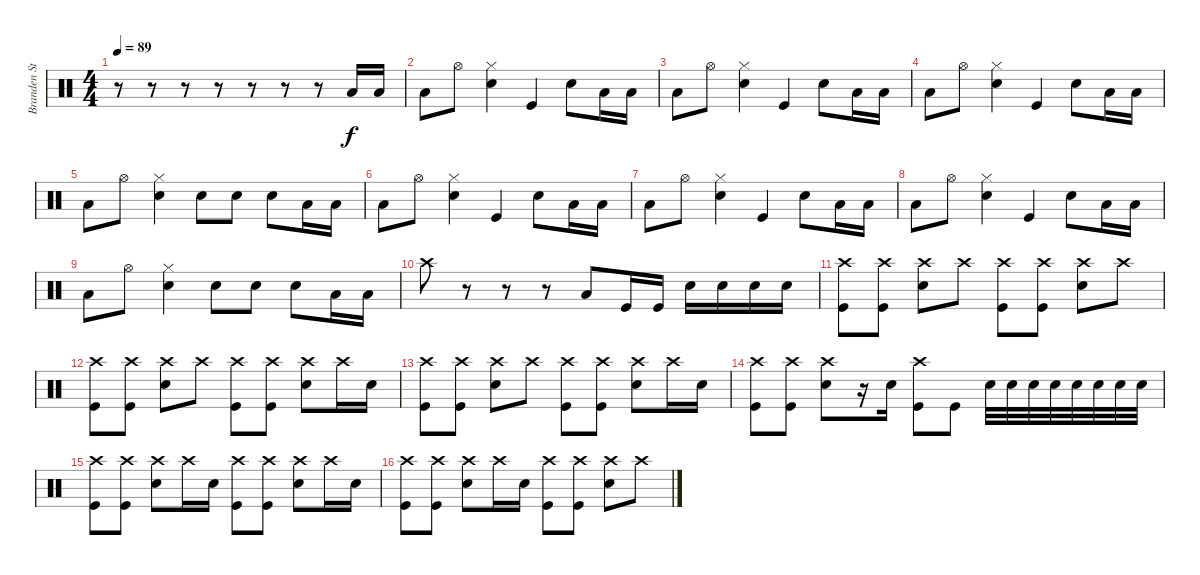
\track ("Branden Steineckert - Drums" "Branden St") {instrument percussion}
\staff {score}
\articulation defaults
\ts (4 4)
\tempo 89
\clef neutral
\ks c
r.8{dy mp} r.8 r.8 r.8 r.8 r.8 r.8 "Low Floor Tom (hit)".16{dy f} "Low Floor Tom (hit)".16 |
"Low Floor Tom (hit)".8 "Hi-Hat (open)".8 ("Hi-Hat (closed)" "Electric Snare (hit)").4 "Kick (hit)".4 "Electric Snare (hit)".8 "Low Floor Tom (hit)".16 "Low Floor Tom (hit)".16 |
"Low Floor Tom (hit)".8 "Hi-Hat (open)".8 ("Hi-Hat (closed)" "Electric Snare (hit)").4 "Kick (hit)".4 "Electric Snare (hit)".8 "Low Floor Tom (hit)".16 "Low Floor Tom (hit)".16 |
"Low Floor Tom (hit)".8 "Hi-Hat (open)".8 ("Hi-Hat (closed)" "Electric Snare (hit)").4 "Kick (hit)".4 "Electric Snare (hit)".8 "Low Floor Tom (hit)".16 "Low Floor Tom (hit)".16 |
"Low Floor Tom (hit)".8 "Hi-Hat (open)".8 ("Hi-Hat (closed)" "Electric Snare (hit)").4 "Electric Snare (hit)".8 "Electric Snare (hit)".8 "Electric Snare (hit)".8 "Low Floor Tom (hit)".16 "Low Floor Tom (hit)".16 |
"Low Floor Tom (hit)".8 "Hi-Hat (open)".8 ("Hi-Hat (closed)" "Electric Snare (hit)").4 "Kick (hit)".4 "Electric Snare (hit)".8 "Low Floor Tom (hit)".16 "Low Floor Tom (hit)".16 |
"Low Floor Tom (hit)".8 "Hi-Hat (open)".8 ("Hi-Hat (closed)" "Electric Snare (hit)").4 "Kick (hit)".4 "Electric Snare (hit)".8 "Low Floor Tom (hit)".16 "Low Floor Tom (hit)".16 |
"Low Floor Tom (hit)".8 "Hi-Hat (open)".8 ("Hi-Hat (closed)" "Electric Snare (hit)").4 "Kick (hit)".4 "Electric Snare (hit)".8 "Low Floor Tom (hit)".16 "Low Floor Tom (hit)".16 |
"Low Floor Tom (hit)".8 "Hi-Hat (open)".8 ("Hi-Hat (closed)" "Electric Snare (hit)").4 "Electric Snare (hit)".8 "Electric Snare (hit)".8 "Electric Snare (hit)".8 "Low Floor Tom (hit)".16 "Low Floor Tom (hit)".16 |
"Crash high (hit)".8 r.8 r.8 r.8 "Low Floor Tom (hit)".8 "Kick (hit)".16 "Kick (hit)".16 "Electric Snare (hit)".16 "Electric Snare (hit)".16 "Electric Snare (hit)".16 "Electric Snare (hit)".16 |
("Crash high (hit)" "Kick (hit)").8 ("Crash high (hit)" "Kick (hit)").8 ("Crash high (hit)" "Electric Snare (hit)").8 "Crash high (hit)".8 ("Crash high (hit)" "Kick (hit)").8 ("Crash high (hit)" "Kick (hit)").8 ("Crash high (hit)" "Electric Snare (hit)").8 "Crash high (hit)".8 |
("Crash high (hit)" "Kick (hit)").8 ("Crash high (hit)" "Kick (hit)").8 ("Crash high (hit)" "Electric Snare (hit)").8 "Crash high (hit)".8 ("Crash high (hit)" "Kick (hit)").8 ("Crash high (hit)" "Kick (hit)").8 ("Crash high (hit)" "Electric Snare (hit)").8 "Crash high (hit)".16 "Electric Snare (hit)".16 |
("Crash high (hit)" "Kick (hit)").8 ("Crash high (hit)" "Kick (hit)").8 ("Crash high (hit)" "Electric Snare (hit)").8 "Crash high (hit)".8 ("Crash high (hit)" "Kick (hit)").8 ("Crash high (hit)" "Kick (hit)").8 ("Crash high (hit)" "Electric Snare (hit)").8 "Crash high (hit)".16 "Electric Snare (hit)".16 |
("Crash high (hit)" "Kick (hit)").8 ("Crash high (hit)" "Kick (hit)").8 ("Crash high (hit)" "Electric Snare (hit)").8 r.16 "Electric Snare (hit)".16 ("Crash high (hit)" "Kick (hit)").8 "Kick (hit)".8 "Electric Snare (hit)".32 "Electric Snare (hit)".32 "Electric Snare (hit)".32 "Electric Snare (hit)".32 "Electric Snare (hit)".32 "Electric Snare (hit)".32 "Electric Snare (hit)".32 "Electric Snare (hit)".32 |
("Crash high (hit)" "Kick (hit)").8 ("Crash high (hit)" "Kick (hit)").8 ("Crash high (hit)" "Electric Snare (hit)").8 "Crash high (hit)".16 "Electric Snare (hit)".16 ("Crash high (hit)" "Kick (hit)").8 ("Crash high (hit)" "Kick (hit)").8 ("Crash high (hit)" "Electric Snare (hit)").8 "Crash high (hit)".16 "Electric Snare (hit)".16 |
("Crash high (hit)" "Kick (hit)").8 ("Crash high (hit)" "Kick (hit)").8 ("Crash high (hit)" "Electric Snare (hit)").8 "Crash high (hit)".16 "Electric Snare (hit)".16 ("Crash high (hit)" "Kick (hit)").8 ("Crash high (hit)" "Kick (hit)").8 ("Crash high (hit)" "Electric Snare (hit)").8 "Crash high (hit)".8
